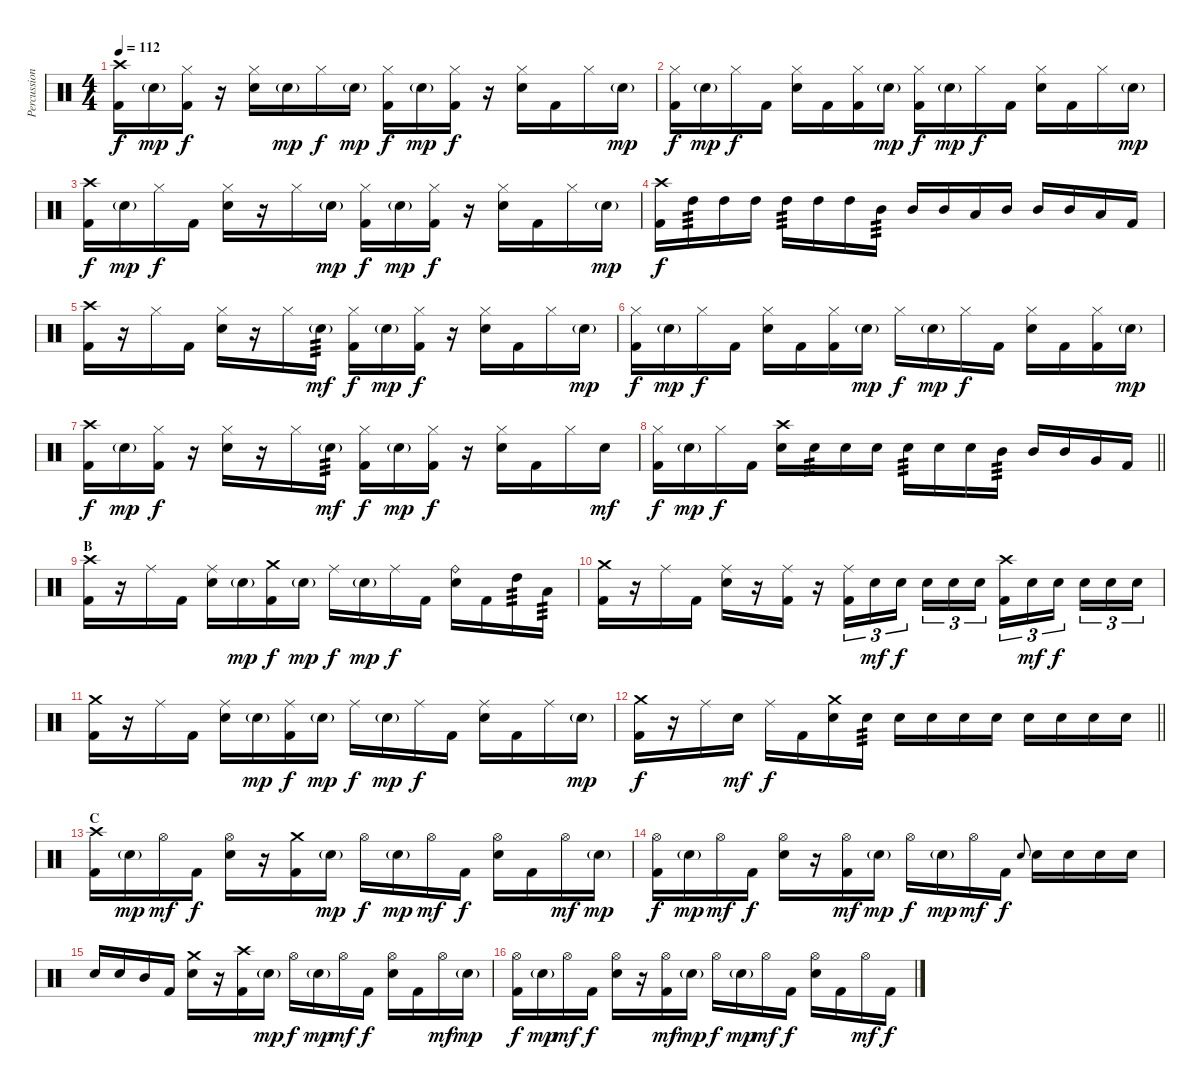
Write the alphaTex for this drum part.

\track ("Percussion" "Percussion") {instrument percussion}
\staff {score}
\articulation defaults
\ts (4 4)
\section ("" "")
\tempo 112
\clef neutral
\ks c
("Crash high (hit)" "Kick (hit) 2").16{dy f} "Snare (hit) 2"{g}.16{dy mp} ("Hi-Hat (closed)" "Kick (hit) 2").16{dy f} r.16 ("Hi-Hat (closed)" "Snare (hit) 2").16 "Snare (hit) 2"{g}.16{dy mp} "Hi-Hat (closed)".16{dy f} "Snare (hit) 2"{g}.16{dy mp} ("Hi-Hat (closed)" "Kick (hit) 2").16{dy f} "Snare (hit) 2"{g}.16{dy mp} ("Hi-Hat (closed)" "Kick (hit) 2").16{dy f} r.16 ("Hi-Hat (closed)" "Snare (hit) 2").16 "Kick (hit) 2".16 "Hi-Hat (closed)".16 "Snare (hit) 2"{g}.16{dy mp} |
("Hi-Hat (closed)" "Kick (hit) 2").16{dy f} "Snare (hit) 2"{g}.16{dy mp} "Hi-Hat (closed)".16{dy f} "Kick (hit) 2".16 ("Hi-Hat (closed)" "Snare (hit) 2").16 "Kick (hit) 2".16 ("Hi-Hat (closed)" "Kick (hit) 2").16 "Snare (hit) 2"{g}.16{dy mp} ("Hi-Hat (closed)" "Kick (hit) 2").16{dy f} "Snare (hit) 2"{g}.16{dy mp} "Hi-Hat (closed)".16{dy f} "Kick (hit) 2".16 ("Hi-Hat (closed)" "Snare (hit) 2").16 "Kick (hit) 2".16 "Hi-Hat (closed)".16 "Snare (hit) 2"{g}.16{dy mp} |
("Crash high (hit)" "Kick (hit) 2").16{dy f} "Snare (hit) 2"{g}.16{dy mp} "Hi-Hat (closed)".16{dy f} "Kick (hit) 2".16 ("Hi-Hat (closed)" "Snare (hit) 2").16 r.16 "Hi-Hat (closed)".16 "Snare (hit) 2"{g}.16{dy mp} ("Hi-Hat (closed)" "Kick (hit) 2").16{dy f} "Snare (hit) 2"{g}.16{dy mp} ("Hi-Hat (closed)" "Kick (hit) 2").16{dy f} r.16 ("Hi-Hat (closed)" "Snare (hit) 2").16 "Kick (hit) 2".16 "Hi-Hat (closed)".16 "Snare (hit) 2"{g}.16{dy mp} |
("Crash high (hit)" "Kick (hit) 2").16{dy f} "High Tom (hit)".16{tp 3} "High Tom (hit)".16 "High Tom (hit)".16 "High Tom (hit)".16{tp 3} "High Tom (hit)".16 "High Tom (hit)".16 "Mid Tom (hit)".16{tp 3} "Mid Tom (hit)".16 "Mid Tom (hit)".16 "Low Tom (hit)".16 "Mid Tom (hit)".16 "Mid Tom (hit)".16 "Mid Tom (hit)".16 "Low Tom (hit)".16 "Kick (hit) 2".16 |
("Crash high (hit)" "Kick (hit) 2").16 r.16 "Hi-Hat (closed)".16 "Kick (hit) 2".16 ("Hi-Hat (closed)" "Snare (hit) 2").16 r.16 "Hi-Hat (closed)".16 "Snare (hit) 2"{g}.16{tp 3 dy mf} ("Hi-Hat (closed)" "Kick (hit) 2").16{dy f} "Snare (hit) 2"{g}.16{dy mp} ("Hi-Hat (closed)" "Kick (hit) 2").16{dy f} r.16 ("Hi-Hat (closed)" "Snare (hit) 2").16 "Kick (hit) 2".16 "Hi-Hat (closed)".16 "Snare (hit) 2"{g}.16{dy mp} |
("Hi-Hat (closed)" "Kick (hit) 2").16{dy f} "Snare (hit) 2"{g}.16{dy mp} "Hi-Hat (closed)".16{dy f} "Kick (hit) 2".16 ("Hi-Hat (closed)" "Snare (hit) 2").16 "Kick (hit) 2".16 ("Hi-Hat (closed)" "Kick (hit) 2").16 "Snare (hit) 2"{g}.16{dy mp} "Hi-Hat (closed)".16{dy f} "Snare (hit) 2"{g}.16{dy mp} "Hi-Hat (closed)".16{dy f} "Kick (hit) 2".16 ("Hi-Hat (closed)" "Snare (hit) 2").16 "Kick (hit) 2".16 ("Hi-Hat (closed)" "Kick (hit) 2").16 "Snare (hit) 2"{g}.16{dy mp} |
("Crash high (hit)" "Kick (hit) 2").16{dy f} "Snare (hit) 2"{g}.16{dy mp} ("Hi-Hat (closed)" "Kick (hit) 2").16{dy f} r.16 ("Hi-Hat (closed)" "Snare (hit) 2").16 r.16 "Hi-Hat (closed)".16 "Snare (hit) 2"{g}.16{tp 3 dy mf} ("Hi-Hat (closed)" "Kick (hit) 2").16{dy f} "Snare (hit) 2"{g}.16{dy mp} ("Hi-Hat (closed)" "Kick (hit) 2").16{dy f} r.16 ("Hi-Hat (closed)" "Snare (hit) 2").16 "Kick (hit) 2".16 "Hi-Hat (closed)".16 "Snare (hit) 2".16{dy mf} |
\barLineRight lightlight
("Hi-Hat (closed)" "Kick (hit) 2").16{dy f} "Snare (hit) 2"{g}.16{dy mp} "Hi-Hat (closed)".16{dy f} "Kick (hit) 2".16 ("Crash high (hit)" "Snare (hit) 2").16 "Snare (hit) 2".16{tp 3} "Snare (hit) 2".16 "Snare (hit) 2".16 "Snare (hit) 2".16{tp 3} "Snare (hit) 2".16 "Snare (hit) 2".16 "Mid Tom (hit)".16{tp 3} "Mid Tom (hit)".16 "Mid Tom (hit)".16 "Very Low Tom (hit)".16 "Kick (hit) 2".16 |
\section ("" "B")
("Crash high (hit)" "Kick (hit) 2").16 r.16 "Ride (middle)".16 "Kick (hit) 2".16 ("Ride (middle)" "Snare (hit) 2").16 "Snare (hit) 2"{g}.16{dy mp} ("Crash medium (hit)" "Kick (hit) 2").16{dy f} "Snare (hit) 2"{g}.16{dy mp} "Ride (middle)".16{dy f} "Snare (hit) 2"{g}.16{dy mp} "Ride (middle)".16{dy f} "Kick (hit) 2".16 ("Ride (bell)" "Snare (hit) 2").16 "Kick (hit) 2".16 "High Tom (hit)".16{tp 3} "Low Tom (hit)".16{tp 3} |
("Crash medium (hit)" "Kick (hit) 2").16 r.16 "Ride (middle)".16 "Kick (hit) 2".16 ("Ride (middle)" "Snare (hit) 2").16 r.16 ("Ride (middle)" "Kick (hit) 2").16 r.16 ("Ride (middle)" "Kick (hit) 2").16{tu (3 2)} "Snare (hit) 2".16{tu (3 2) dy mf} "Snare (hit) 2".16{tu (3 2) dy f beam splitsecondary} "Snare (hit) 2".16{tu (3 2)} "Snare (hit) 2".16{tu (3 2)} "Snare (hit) 2".16{tu (3 2)} ("Crash high (hit)" "Kick (hit) 2").16{tu (3 2)} "Snare (hit) 2".16{tu (3 2) dy mf} "Snare (hit) 2".16{tu (3 2) dy f beam splitsecondary} "Snare (hit) 2".16{tu (3 2)} "Snare (hit) 2".16{tu (3 2)} "Snare (hit) 2".16{tu (3 2)} |
("Crash medium (hit)" "Kick (hit) 2").16 r.16 "Ride (middle)".16 "Kick (hit) 2".16 ("Ride (middle)" "Snare (hit) 2").16 "Snare (hit) 2"{g}.16{dy mp} ("Ride (middle)" "Kick (hit) 2").16{dy f} "Snare (hit) 2"{g}.16{dy mp} "Ride (middle)".16{dy f} "Snare (hit) 2"{g}.16{dy mp} "Ride (middle)".16{dy f} "Kick (hit) 2".16 ("Ride (middle)" "Snare (hit) 2").16 "Kick (hit) 2".16 "Ride (middle)".16 "Snare (hit) 2"{g}.16{dy mp} |
\barLineRight lightlight
("Crash medium (hit)" "Kick (hit) 2").16{dy f} r.16 "Ride (middle)".16 "Snare (hit) 2".16{dy mf} "Ride (middle)".16{dy f} "Kick (hit) 2".16 ("Crash medium (hit)" "Snare (hit) 2").16 "Snare (hit) 2".16{tp 3} "Snare (hit) 2".16 "Snare (hit) 2".16 "Snare (hit) 2".16 "Snare (hit) 2".16 "Snare (hit) 2".16 "Snare (hit) 2".16 "Snare (hit) 2".16 "Snare (hit) 2".16 |
\section ("" "C")
("Crash high (hit)" "Kick (hit) 2").16 "Snare (hit) 2"{g}.16{dy mp} "Hi-Hat (open)".16{dy mf} "Kick (hit) 2".16{dy f} ("Hi-Hat (open)" "Snare (hit) 2").16 r.16 ("Crash medium (hit)" "Kick (hit) 2").16 "Snare (hit) 2"{g}.16{dy mp} "Hi-Hat (open)".16{dy f} "Snare (hit) 2"{g}.16{dy mp} "Hi-Hat (open)".16{dy mf} "Kick (hit) 2".16{dy f} ("Hi-Hat (open)" "Snare (hit) 2").16 "Kick (hit) 2".16 "Hi-Hat (open)".16{dy mf} "Snare (hit) 2"{g}.16{dy mp} |
("Hi-Hat (open)" "Kick (hit) 2").16{dy f} "Snare (hit) 2"{g}.16{dy mp} "Hi-Hat (open)".16{dy mf} "Kick (hit) 2".16{dy f} ("Hi-Hat (open)" "Snare (hit) 2").16 r.16 ("Hi-Hat (open)" "Kick (hit) 2").16{dy mf} "Snare (hit) 2"{g}.16{dy mp} "Hi-Hat (open)".16{dy f} "Snare (hit) 2"{g}.16{dy mp} "Hi-Hat (open)".16{dy mf} "Kick (hit) 2".16{dy f} "Snare (hit) 2".8{gr onbeat} "Snare (hit) 2".16 "Snare (hit) 2".16 "Snare (hit) 2".16 "Snare (hit) 2".16 |
"Snare (hit) 2".16 "Snare (hit) 2".16 "Mid Tom (hit)".16 "Kick (hit) 2".16 ("Crash medium (hit)" "Snare (hit) 2").16 r.16 ("Crash high (hit)" "Kick (hit) 2").16 "Snare (hit) 2"{g}.16{dy mp} "Hi-Hat (open)".16{dy f} "Snare (hit) 2"{g}.16{dy mp} "Hi-Hat (open)".16{dy mf} "Kick (hit) 2".16{dy f} ("Hi-Hat (open)" "Snare (hit) 2").16 "Kick (hit) 2".16 "Hi-Hat (open)".16{dy mf} "Snare (hit) 2"{g}.16{dy mp} |
("Hi-Hat (open)" "Kick (hit) 2").16{dy f} "Snare (hit) 2"{g}.16{dy mp} "Hi-Hat (open)".16{dy mf} "Kick (hit) 2".16{dy f} ("Hi-Hat (open)" "Snare (hit) 2").16 r.16 ("Hi-Hat (open)" "Kick (hit) 2").16{dy mf} "Snare (hit) 2"{g}.16{dy mp} "Hi-Hat (open)".16{dy f} "Snare (hit) 2"{g}.16{dy mp} "Hi-Hat (open)".16{dy mf} "Kick (hit) 2".16{dy f} ("Hi-Hat (open)" "Snare (hit) 2").16 "Kick (hit) 2".16 "Hi-Hat (open)".16{dy mf} "Kick (hit) 2".16{dy f}
